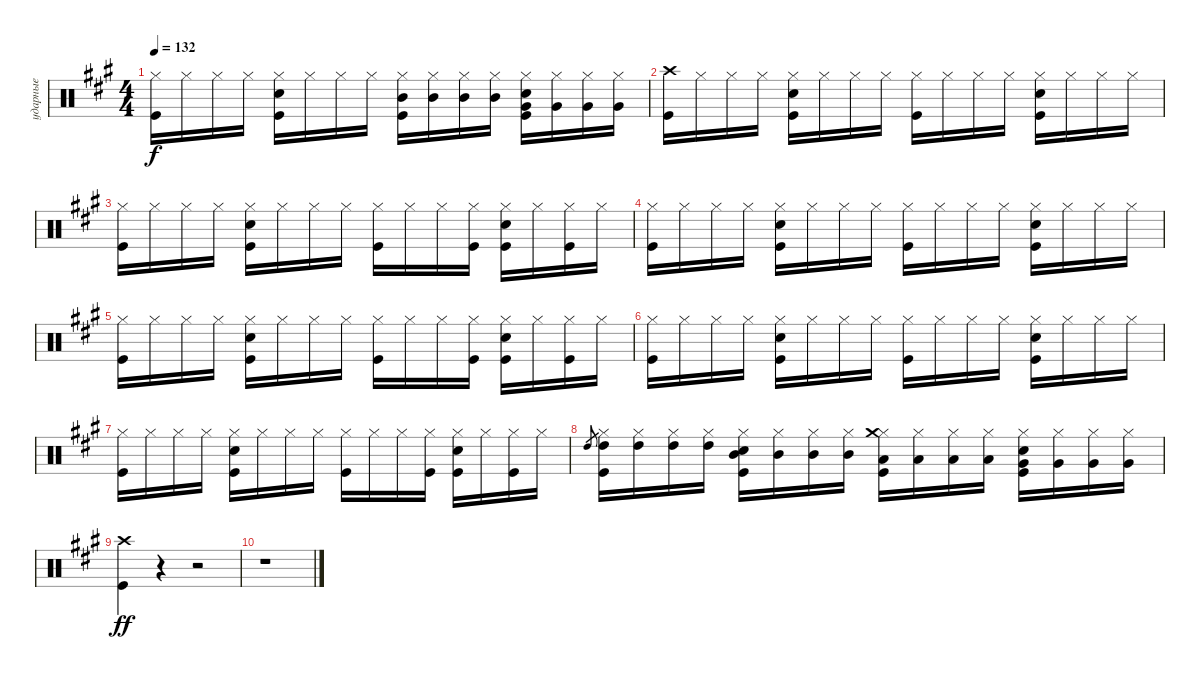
\track ("ударные" "ударные") {instrument percussion}
\staff {score}
\articulation defaults
\ts (4 4)
\tempo 132
\clef neutral
\ks f#minor
("Hi-Hat (closed)" "Kick (hit)").16{dy f} "Hi-Hat (closed)".16 "Hi-Hat (closed)".16 "Hi-Hat (closed)".16 ("Hi-Hat (closed)" "Snare (hit) 2" "Kick (hit)").16 "Hi-Hat (closed)".16 "Hi-Hat (closed)".16 "Hi-Hat (closed)".16 ("Mid Tom (hit)" "Hi-Hat (closed)" "Kick (hit)").16 ("Mid Tom (hit)" "Hi-Hat (closed)").16 ("Mid Tom (hit)" "Hi-Hat (closed)").16 ("Mid Tom (hit)" "Hi-Hat (closed)").16 ("Very Low Tom (hit)" "Hi-Hat (closed)" "Snare (hit) 2" "Kick (hit)").16 ("Very Low Tom (hit)" "Hi-Hat (closed)").16 ("Very Low Tom (hit)" "Hi-Hat (closed)").16 ("Very Low Tom (hit)" "Hi-Hat (closed)").16 |
("Kick (hit)" "Crash high (hit)").16 "Hi-Hat (closed)".16 "Hi-Hat (closed)".16 "Hi-Hat (closed)".16 ("Hi-Hat (closed)" "Snare (hit) 2" "Kick (hit)").16 "Hi-Hat (closed)".16 "Hi-Hat (closed)".16 "Hi-Hat (closed)".16 ("Hi-Hat (closed)" "Kick (hit)").16 "Hi-Hat (closed)".16 "Hi-Hat (closed)".16 "Hi-Hat (closed)".16 ("Hi-Hat (closed)" "Snare (hit) 2" "Kick (hit)").16 "Hi-Hat (closed)".16 "Hi-Hat (closed)".16 "Hi-Hat (closed)".16 |
("Hi-Hat (closed)" "Kick (hit)").16 "Hi-Hat (closed)".16 "Hi-Hat (closed)".16 "Hi-Hat (closed)".16 ("Hi-Hat (closed)" "Snare (hit) 2" "Kick (hit)").16 "Hi-Hat (closed)".16 "Hi-Hat (closed)".16 "Hi-Hat (closed)".16 ("Hi-Hat (closed)" "Kick (hit)").16 "Hi-Hat (closed)".16 "Hi-Hat (closed)".16 ("Hi-Hat (closed)" "Kick (hit)").16 ("Hi-Hat (closed)" "Snare (hit) 2" "Kick (hit)").16 "Hi-Hat (closed)".16 ("Hi-Hat (closed)" "Kick (hit)").16 "Hi-Hat (closed)".16 |
("Hi-Hat (closed)" "Kick (hit)").16 "Hi-Hat (closed)".16 "Hi-Hat (closed)".16 "Hi-Hat (closed)".16 ("Hi-Hat (closed)" "Snare (hit) 2" "Kick (hit)").16 "Hi-Hat (closed)".16 "Hi-Hat (closed)".16 "Hi-Hat (closed)".16 ("Hi-Hat (closed)" "Kick (hit)").16 "Hi-Hat (closed)".16 "Hi-Hat (closed)".16 "Hi-Hat (closed)".16 ("Hi-Hat (closed)" "Snare (hit) 2" "Kick (hit)").16 "Hi-Hat (closed)".16 "Hi-Hat (closed)".16 "Hi-Hat (closed)".16 |
("Hi-Hat (closed)" "Kick (hit)").16 "Hi-Hat (closed)".16 "Hi-Hat (closed)".16 "Hi-Hat (closed)".16 ("Hi-Hat (closed)" "Snare (hit) 2" "Kick (hit)").16 "Hi-Hat (closed)".16 "Hi-Hat (closed)".16 "Hi-Hat (closed)".16 ("Hi-Hat (closed)" "Kick (hit)").16 "Hi-Hat (closed)".16 "Hi-Hat (closed)".16 ("Hi-Hat (closed)" "Kick (hit)").16 ("Hi-Hat (closed)" "Snare (hit) 2" "Kick (hit)").16 "Hi-Hat (closed)".16 ("Hi-Hat (closed)" "Kick (hit)").16 "Hi-Hat (closed)".16 |
("Hi-Hat (closed)" "Kick (hit)").16 "Hi-Hat (closed)".16 "Hi-Hat (closed)".16 "Hi-Hat (closed)".16 ("Hi-Hat (closed)" "Snare (hit) 2" "Kick (hit)").16 "Hi-Hat (closed)".16 "Hi-Hat (closed)".16 "Hi-Hat (closed)".16 ("Hi-Hat (closed)" "Kick (hit)").16 "Hi-Hat (closed)".16 "Hi-Hat (closed)".16 "Hi-Hat (closed)".16 ("Hi-Hat (closed)" "Snare (hit) 2" "Kick (hit)").16 "Hi-Hat (closed)".16 "Hi-Hat (closed)".16 "Hi-Hat (closed)".16 |
("Hi-Hat (closed)" "Kick (hit)").16 "Hi-Hat (closed)".16 "Hi-Hat (closed)".16 "Hi-Hat (closed)".16 ("Hi-Hat (closed)" "Snare (hit) 2" "Kick (hit)").16 "Hi-Hat (closed)".16 "Hi-Hat (closed)".16 "Hi-Hat (closed)".16 ("Hi-Hat (closed)" "Kick (hit)").16 "Hi-Hat (closed)".16 "Hi-Hat (closed)".16 ("Hi-Hat (closed)" "Kick (hit)").16 ("Hi-Hat (closed)" "Snare (hit) 2" "Kick (hit)").16 "Hi-Hat (closed)".16 ("Hi-Hat (closed)" "Kick (hit)").16 "Hi-Hat (closed)".16 |
"High Tom (hit)".8{gr} ("Hi-Hat (closed)" "Kick (hit)" "High Tom (hit)").16 ("Hi-Hat (closed)" "High Tom (hit)").16 ("Hi-Hat (closed)" "High Tom (hit)").16 ("Hi-Hat (closed)" "High Tom (hit)").16 ("Hi-Hat (closed)" "Snare (hit) 2" "Kick (hit)" "Mid Tom (hit)").16 ("Hi-Hat (closed)" "Mid Tom (hit)").16 ("Hi-Hat (closed)" "Mid Tom (hit)").16 ("Hi-Hat (closed)" "Mid Tom (hit)").16 ("Hi-Hat (closed)" "Kick (hit)" "Low Tom (hit)" "Crash medium (hit)").16 ("Hi-Hat (closed)" "Low Tom (hit)").16 ("Hi-Hat (closed)" "Low Tom (hit)").16 ("Hi-Hat (closed)" "Low Tom (hit)").16 ("Hi-Hat (closed)" "Snare (hit) 2" "Kick (hit)" "Very Low Tom (hit)").16 ("Hi-Hat (closed)" "Very Low Tom (hit)").16 ("Hi-Hat (closed)" "Very Low Tom (hit)").16 ("Hi-Hat (closed)" "Very Low Tom (hit)").16 |
("Kick (hit)" "Crash high (hit)").4{dy ff} r.4 r.2 |
r.1
